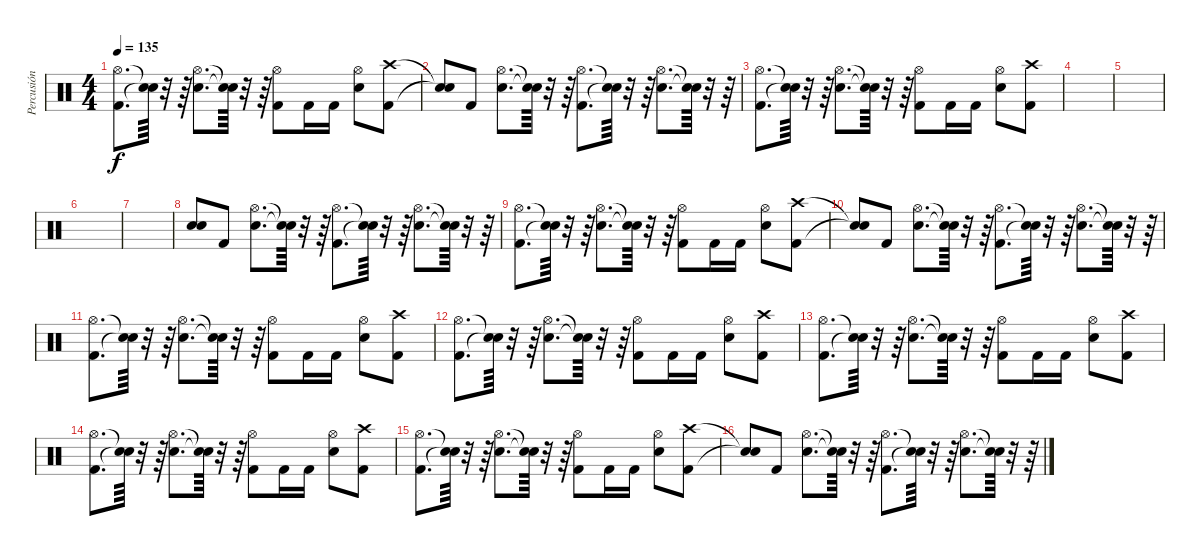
\track ("Percusión" "Percusión") {instrument percussion}
\staff {score}
\articulation defaults
\ts (4 4)
\tempo 135
\clef neutral
\ks c
("Kick (hit) 2" "Hi-Hat (open)").8{d dy f} ("Snare (hit)"{t} "Snare (hit)"{t}).64 r.32 r.64 ("Snare (hit) 2" "Hi-Hat (open)").8{d} ("Snare (hit)"{t} "Snare (hit)"{t}).64 r.32 r.64 ("Kick (hit) 2" "Hi-Hat (open)").8 "Kick (hit) 2".16 "Kick (hit) 2".16 ("Snare (hit) 2" "Hi-Hat (open)").8 ("Kick (hit) 2" "Crash high (hit)").8 |
("Snare (hit)"{t} "Snare (hit)"{t}).8 "Kick (hit) 2".8 ("Snare (hit) 2" "Hi-Hat (open)").8{d} ("Snare (hit)"{t} "Snare (hit)"{t}).64 r.32 r.64 ("Kick (hit) 2" "Hi-Hat (open)").8{d} ("Snare (hit)"{t} "Snare (hit)"{t}).64 r.32 r.64 ("Snare (hit) 2" "Hi-Hat (open)").8{d} ("Snare (hit)"{t} "Snare (hit)"{t}).64 r.32 r.64 |
("Kick (hit) 2" "Hi-Hat (open)").8{d} ("Snare (hit)"{t} "Snare (hit)"{t}).64 r.32 r.64 ("Snare (hit) 2" "Hi-Hat (open)").8{d} ("Snare (hit)"{t} "Snare (hit)"{t}).64 r.32 r.64 ("Kick (hit) 2" "Hi-Hat (open)").8 "Kick (hit) 2".16 "Kick (hit) 2".16 ("Snare (hit) 2" "Hi-Hat (open)").8 ("Kick (hit) 2" "Crash high (hit)").8 |
|
|
|
|
("Snare (hit)" "Snare (hit)").8 "Kick (hit) 2".8 ("Snare (hit) 2" "Hi-Hat (open)").8{d} ("Snare (hit)"{t} "Snare (hit)"{t}).64 r.32 r.64 ("Kick (hit) 2" "Hi-Hat (open)").8{d} ("Snare (hit)"{t} "Snare (hit)"{t}).64 r.32 r.64 ("Snare (hit) 2" "Hi-Hat (open)").8{d} ("Snare (hit)"{t} "Snare (hit)"{t}).64 r.32 r.64 |
("Kick (hit) 2" "Hi-Hat (open)").8{d} ("Snare (hit)"{t} "Snare (hit)"{t}).64 r.32 r.64 ("Snare (hit) 2" "Hi-Hat (open)").8{d} ("Snare (hit)"{t} "Snare (hit)"{t}).64 r.32 r.64 ("Kick (hit) 2" "Hi-Hat (open)").8 "Kick (hit) 2".16 "Kick (hit) 2".16 ("Snare (hit) 2" "Hi-Hat (open)").8 ("Kick (hit) 2" "Crash high (hit)").8 |
("Snare (hit)"{t} "Snare (hit)"{t}).8 "Kick (hit) 2".8 ("Snare (hit) 2" "Hi-Hat (open)").8{d} ("Snare (hit)"{t} "Snare (hit)"{t}).64 r.32 r.64 ("Kick (hit) 2" "Hi-Hat (open)").8{d} ("Snare (hit)"{t} "Snare (hit)"{t}).64 r.32 r.64 ("Snare (hit) 2" "Hi-Hat (open)").8{d} ("Snare (hit)"{t} "Snare (hit)"{t}).64 r.32 r.64 |
("Kick (hit) 2" "Hi-Hat (open)").8{d} ("Snare (hit)"{t} "Snare (hit)"{t}).64 r.32 r.64 ("Snare (hit) 2" "Hi-Hat (open)").8{d} ("Snare (hit)"{t} "Snare (hit)"{t}).64 r.32 r.64 ("Kick (hit) 2" "Hi-Hat (open)").8 "Kick (hit) 2".16 "Kick (hit) 2".16 ("Snare (hit) 2" "Hi-Hat (open)").8 ("Kick (hit) 2" "Crash high (hit)").8 |
("Kick (hit) 2" "Hi-Hat (open)").8{d} ("Snare (hit)"{t} "Snare (hit)"{t}).64 r.32 r.64 ("Snare (hit) 2" "Hi-Hat (open)").8{d} ("Snare (hit)"{t} "Snare (hit)"{t}).64 r.32 r.64 ("Kick (hit) 2" "Hi-Hat (open)").8 "Kick (hit) 2".16 "Kick (hit) 2".16 ("Snare (hit) 2" "Hi-Hat (open)").8 ("Kick (hit) 2" "Crash high (hit)").8 |
("Kick (hit) 2" "Hi-Hat (open)").8{d} ("Snare (hit)"{t} "Snare (hit)"{t}).64 r.32 r.64 ("Snare (hit) 2" "Hi-Hat (open)").8{d} ("Snare (hit)"{t} "Snare (hit)"{t}).64 r.32 r.64 ("Kick (hit) 2" "Hi-Hat (open)").8 "Kick (hit) 2".16 "Kick (hit) 2".16 ("Snare (hit) 2" "Hi-Hat (open)").8 ("Kick (hit) 2" "Crash high (hit)").8 |
("Kick (hit) 2" "Hi-Hat (open)").8{d} ("Snare (hit)"{t} "Snare (hit)"{t}).64 r.32 r.64 ("Snare (hit) 2" "Hi-Hat (open)").8{d} ("Snare (hit)"{t} "Snare (hit)"{t}).64 r.32 r.64 ("Kick (hit) 2" "Hi-Hat (open)").8 "Kick (hit) 2".16 "Kick (hit) 2".16 ("Snare (hit) 2" "Hi-Hat (open)").8 ("Kick (hit) 2" "Crash high (hit)").8 |
("Kick (hit) 2" "Hi-Hat (open)").8{d} ("Snare (hit)"{t} "Snare (hit)"{t}).64 r.32 r.64 ("Snare (hit) 2" "Hi-Hat (open)").8{d} ("Snare (hit)"{t} "Snare (hit)"{t}).64 r.32 r.64 ("Kick (hit) 2" "Hi-Hat (open)").8 "Kick (hit) 2".16 "Kick (hit) 2".16 ("Snare (hit) 2" "Hi-Hat (open)").8 ("Kick (hit) 2" "Crash high (hit)").8 |
("Snare (hit)"{t} "Snare (hit)"{t}).8 "Kick (hit) 2".8 ("Snare (hit) 2" "Hi-Hat (open)").8{d} ("Snare (hit)"{t} "Snare (hit)"{t}).64 r.32 r.64 ("Kick (hit) 2" "Hi-Hat (open)").8{d} ("Snare (hit)"{t} "Snare (hit)"{t}).64 r.32 r.64 ("Snare (hit) 2" "Hi-Hat (open)").8{d} ("Snare (hit)"{t} "Snare (hit)"{t}).64 r.32 r.64
